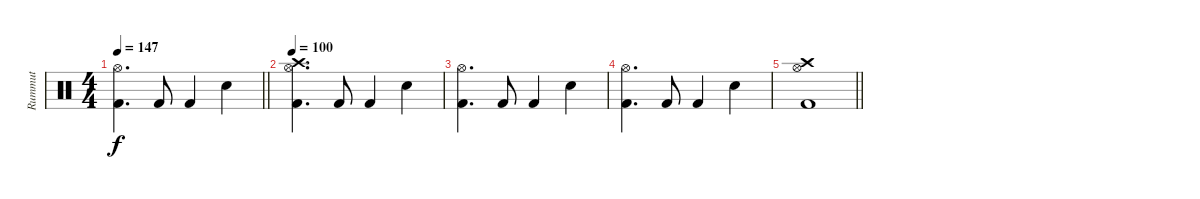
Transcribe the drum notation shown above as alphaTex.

\track ("Rummut" "Rummut") {instrument percussion}
\staff {score}
\articulation defaults
\ts (4 4)
\tempo 147
\clef neutral
\barLineRight lightlight
\ks c
("Hi-Hat (open)" "Kick (hit) 2").4{d dy f} "Kick (hit) 2".8 "Kick (hit) 2".4 "Snare (hit) 2".4 |
\tempo 100
("Crash high (hit)" "Hi-Hat (open)" "Kick (hit) 2").4{d} "Kick (hit) 2".8 "Kick (hit) 2".4 "Snare (hit) 2".4 |
("Hi-Hat (open)" "Kick (hit) 2").4{d} "Kick (hit) 2".8 "Kick (hit) 2".4 "Snare (hit) 2".4 |
("Hi-Hat (open)" "Kick (hit) 2").4{d} "Kick (hit) 2".8 "Kick (hit) 2".4 "Snare (hit) 2".4 |
\barLineRight lightlight
("Crash high (hit)" "Hi-Hat (open)" "Kick (hit) 2").1
